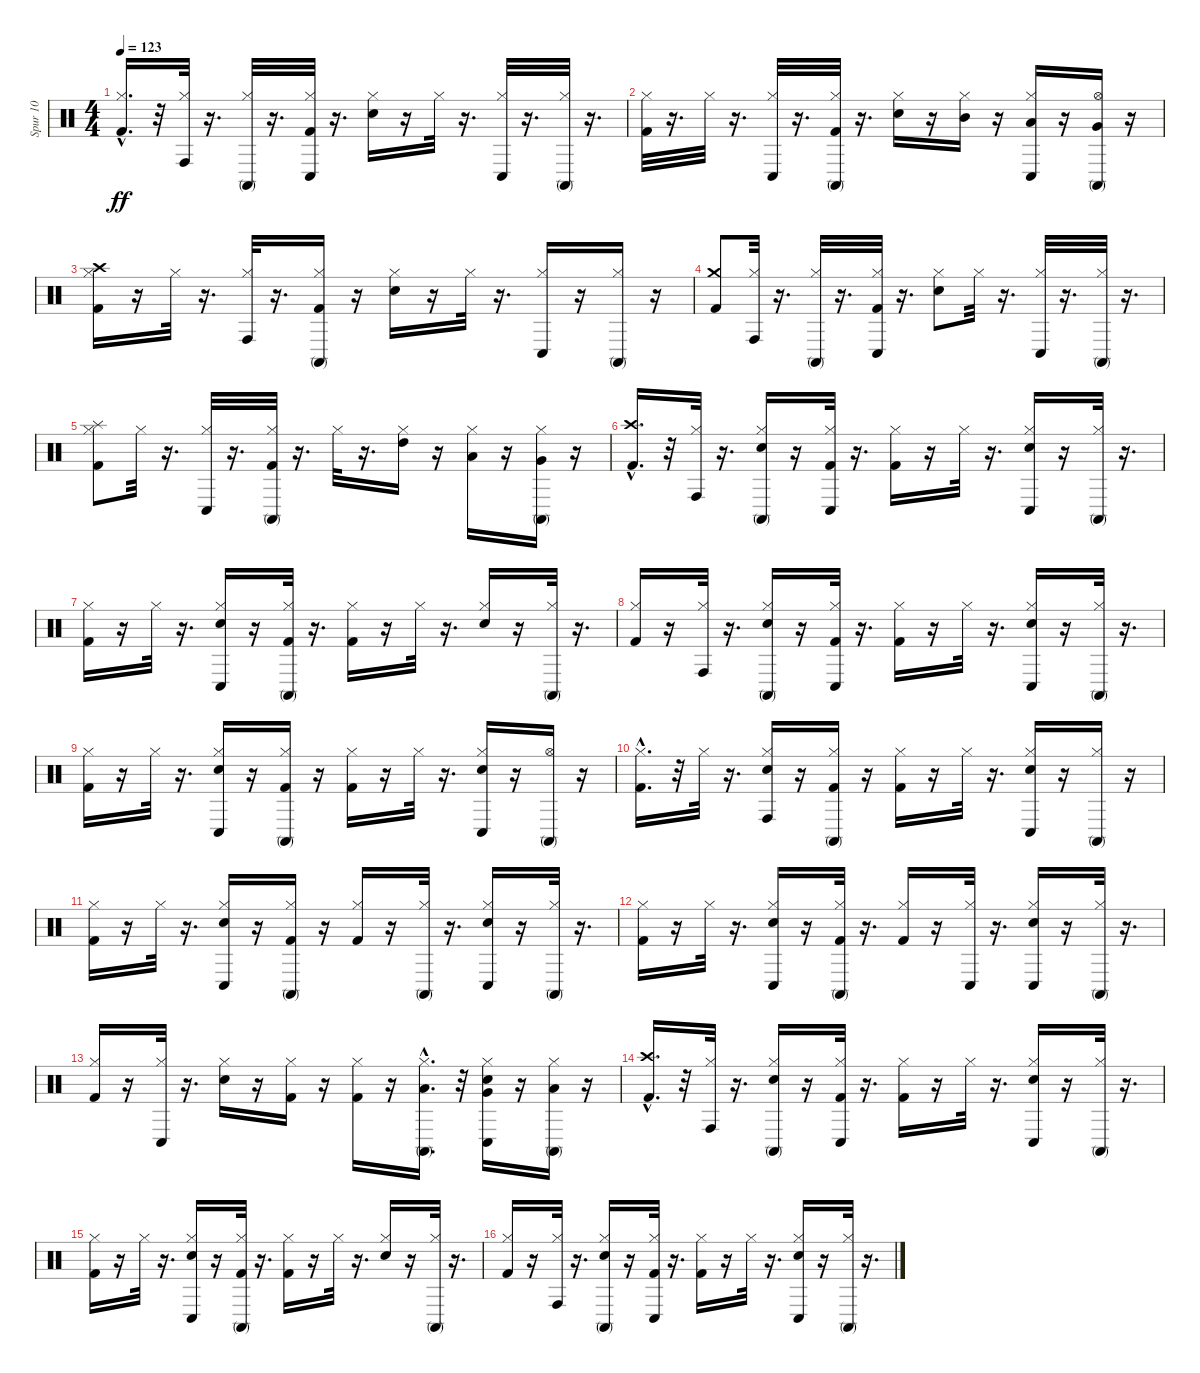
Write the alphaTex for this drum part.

\track ("Spur 10" "Spur 10") {instrument percussion}
\staff {score}
\articulation defaults
\ts (4 4)
\tempo 123
\clef neutral
\ks c
("Kick (hit) 2"{hac} "Hi-Hat (closed)").16{d dy ff} r.32 ("Conga high (hit)" "Hi-Hat (closed)").32 r.16{d} ("Conga high (mute)" "Hi-Hat (closed)").32 r.16{d} ("Kick (hit) 2" "Conga low (hit)" "Hi-Hat (closed)").32 r.16{d} ("Snare (hit) 2" "Hi-Hat (closed)").16 r.16 "Hi-Hat (closed)".32 r.16{d} ("Conga low (hit)" "Hi-Hat (closed)").32 r.16{d} ("Conga high (mute)" "Hi-Hat (closed)").32 r.16{d} |
("Kick (hit) 2" "Hi-Hat (closed)").32 r.16{d} "Hi-Hat (closed)".32 r.16{d} ("Conga low (hit)" "Hi-Hat (closed)").32 r.16{d} ("Kick (hit) 2" "Conga high (mute)" "Hi-Hat (closed)").32 r.16{d} ("Snare (hit) 2" "Hi-Hat (closed)").16 r.16 ("Mid Tom (hit)" "Hi-Hat (closed)").16 r.16 ("Conga low (hit)" "Hi-Hat (closed)" "Low Tom (hit)").16 r.16 ("Conga high (mute)" "Hi-Hat (open)" "Very Low Tom (hit)").16 r.16 |
("Kick (hit) 2" "Crash high (hit)" "Hi-Hat (closed)").16 r.16 "Hi-Hat (closed)".32 r.16{d} ("Conga high (hit)" "Hi-Hat (closed)").32 r.16{d} ("Kick (hit) 2" "Conga high (mute)" "Hi-Hat (closed)").16 r.16 ("Snare (hit) 2" "Hi-Hat (closed)").16 r.16 "Hi-Hat (closed)".32 r.16{d} ("Conga low (hit)" "Hi-Hat (closed)").16 r.16 ("Conga high (mute)" "Hi-Hat (closed)").16 r.16 |
("Kick (hit) 2" "Crash medium (hit)").8 ("Conga high (hit)" "Hi-Hat (closed)").32 r.16{d} ("Conga high (mute)" "Hi-Hat (closed)").32 r.16{d} ("Kick (hit) 2" "Conga low (hit)" "Hi-Hat (closed)").32 r.16{d} ("Snare (hit) 2" "Hi-Hat (closed)").8 "Hi-Hat (closed)".32 r.16{d} ("Conga low (hit)" "Hi-Hat (closed)").32 r.16{d} ("Conga high (mute)" "Hi-Hat (closed)").32 r.16{d} |
("Kick (hit) 2" "Splash (hit)" "Hi-Hat (closed)").8 "Hi-Hat (closed)".32 r.16{d} ("Hi-Hat (closed)" "Conga low (hit)").32 r.16{d} ("Kick (hit) 2" "Hi-Hat (closed)" "Conga high (mute)").32 r.16{d} "Hi-Hat (closed)".32 r.16{d} ("High Tom (hit)" "Hi-Hat (closed)").16 r.16 ("Low Tom (hit)" "Hi-Hat (closed)").16 r.16 ("Very Low Tom (hit)" "Conga high (mute)" "Hi-Hat (closed)").16 r.16 |
("Kick (hit) 2"{hac} "Crash high (hit)").16{d} r.32 ("Conga high (hit)" "Hi-Hat (closed)").32 r.16{d} ("Snare (hit) 2" "Conga high (mute)" "Hi-Hat (closed)").16 r.16 ("Kick (hit) 2" "Conga low (hit)" "Hi-Hat (closed)").32 r.16{d} ("Kick (hit) 2" "Hi-Hat (closed)").16 r.16 "Hi-Hat (closed)".32 r.16{d} ("Snare (hit) 2" "Conga low (hit)" "Hi-Hat (closed)").16 r.16 ("Conga high (mute)" "Hi-Hat (closed)").32 r.16{d} |
("Kick (hit) 2" "Hi-Hat (closed)").16 r.16 "Hi-Hat (closed)".32 r.16{d} ("Snare (hit) 2" "Hi-Hat (closed)" "Conga low (hit)").16 r.16 ("Kick (hit) 2" "Hi-Hat (closed)" "Conga high (mute)").32 r.16{d} ("Kick (hit) 2" "Hi-Hat (closed)").16 r.16 "Hi-Hat (closed)".32 r.16{d} ("Snare (hit) 2" "Hi-Hat (closed)").16 r.16 ("Conga high (mute)" "Hi-Hat (closed)").32 r.16{d} |
("Kick (hit) 2" "Hi-Hat (closed)").16 r.16 ("Conga high (hit)" "Hi-Hat (closed)").32 r.16{d} ("Snare (hit) 2" "Conga high (mute)" "Hi-Hat (closed)").16 r.16 ("Kick (hit) 2" "Conga low (hit)" "Hi-Hat (closed)").32 r.16{d} ("Kick (hit) 2" "Hi-Hat (closed)").16 r.16 "Hi-Hat (closed)".32 r.16{d} ("Snare (hit) 2" "Conga low (hit)" "Hi-Hat (closed)").16 r.16 ("Conga high (mute)" "Hi-Hat (closed)").32 r.16{d} |
("Kick (hit) 2" "Hi-Hat (closed)").16 r.16 "Hi-Hat (closed)".32 r.16{d} ("Snare (hit) 2" "Conga low (hit)" "Hi-Hat (closed)").16 r.16 ("Kick (hit) 2" "Conga high (mute)" "Hi-Hat (closed)").16 r.16 ("Kick (hit) 2" "Hi-Hat (closed)").16 r.16 "Hi-Hat (closed)".32 r.16{d} ("Snare (hit) 2" "Conga low (hit)" "Hi-Hat (closed)").16 r.16 ("Conga high (mute)" "Hi-Hat (open)").16 r.16 |
("Kick (hit) 2"{hac} "Hi-Hat (closed)").16{d} r.32 "Hi-Hat (closed)".32 r.16{d} ("Snare (hit) 2" "Conga high (hit)" "Hi-Hat (closed)").16 r.16 ("Kick (hit) 2" "Conga high (mute)" "Hi-Hat (closed)").16 r.16 ("Kick (hit) 2" "Hi-Hat (closed)").16 r.16 "Hi-Hat (closed)".32 r.16{d} ("Snare (hit) 2" "Conga low (hit)" "Hi-Hat (closed)").16 r.16 ("Conga high (mute)" "Hi-Hat (closed)").16 r.16 |
("Kick (hit) 2" "Hi-Hat (closed)").16 r.16 "Hi-Hat (closed)".32 r.16{d} ("Snare (hit) 2" "Conga low (hit)" "Hi-Hat (closed)").16 r.16 ("Kick (hit) 2" "Conga high (mute)" "Hi-Hat (closed)").16 r.16 ("Kick (hit) 2" "Hi-Hat (closed)").16 r.16 ("Conga high (mute)" "Hi-Hat (closed)").32 r.16{d} ("Snare (hit) 2" "Conga low (hit)" "Hi-Hat (closed)").16 r.16 ("Conga high (mute)" "Hi-Hat (closed)").32 r.16{d} |
("Kick (hit) 2" "Hi-Hat (closed)").16 r.16 "Hi-Hat (closed)".32 r.16{d} ("Snare (hit) 2" "Conga low (hit)" "Hi-Hat (closed)").16 r.16 ("Kick (hit) 2" "Conga high (mute)" "Hi-Hat (closed)").32 r.16{d} ("Kick (hit) 2" "Hi-Hat (closed)").16 r.16 ("Conga low (hit)" "Hi-Hat (closed)").32 r.16{d} ("Snare (hit) 2" "Conga low (hit)" "Hi-Hat (closed)").16 r.16 ("Hi-Hat (closed)" "Conga high (mute)").32 r.16{d} |
("Kick (hit) 2" "Hi-Hat (closed)").16 r.16 ("Conga low (hit)" "Hi-Hat (closed)").32 r.16{d} ("Snare (hit) 2" "Hi-Hat (closed)").16 r.16 ("Kick (hit) 2" "Hi-Hat (closed)").16 r.16 ("Kick (hit) 2" "Hi-Hat (closed)").16 r.16 ("Low Tom (hit)"{hac} "Conga high (mute)" "Hi-Hat (closed)").16{d} r.32 ("Snare (hit) 2" "Conga low (hit)" "Very Low Tom (hit)" "Hi-Hat (closed)").16 r.16 ("Hi-Hat (closed)" "Conga high (mute)" "Low Floor Tom (hit)").16 r.16 |
("Kick (hit) 2"{hac} "Crash high (hit)").16{d} r.32 ("Conga high (hit)" "Hi-Hat (closed)").32 r.16{d} ("Snare (hit) 2" "Conga high (mute)" "Hi-Hat (closed)").16 r.16 ("Kick (hit) 2" "Conga low (hit)" "Hi-Hat (closed)").32 r.16{d} ("Kick (hit) 2" "Hi-Hat (closed)").16 r.16 "Hi-Hat (closed)".32 r.16{d} ("Snare (hit) 2" "Conga low (hit)" "Hi-Hat (closed)").16 r.16 ("Conga high (mute)" "Hi-Hat (closed)").32 r.16{d} |
("Kick (hit) 2" "Hi-Hat (closed)").16 r.16 "Hi-Hat (closed)".32 r.16{d} ("Snare (hit) 2" "Hi-Hat (closed)" "Conga low (hit)").16 r.16 ("Kick (hit) 2" "Hi-Hat (closed)" "Conga high (mute)").32 r.16{d} ("Kick (hit) 2" "Hi-Hat (closed)").16 r.16 "Hi-Hat (closed)".32 r.16{d} ("Snare (hit) 2" "Hi-Hat (closed)").16 r.16 ("Conga high (mute)" "Hi-Hat (closed)").32 r.16{d} |
("Kick (hit) 2" "Hi-Hat (closed)").16 r.16 ("Conga high (hit)" "Hi-Hat (closed)").32 r.16{d} ("Snare (hit) 2" "Conga high (mute)" "Hi-Hat (closed)").16 r.16 ("Kick (hit) 2" "Conga low (hit)" "Hi-Hat (closed)").32 r.16{d} ("Kick (hit) 2" "Hi-Hat (closed)").16 r.16 "Hi-Hat (closed)".32 r.16{d} ("Snare (hit) 2" "Conga low (hit)" "Hi-Hat (closed)").16 r.16 ("Conga high (mute)" "Hi-Hat (closed)").32 r.16{d}
